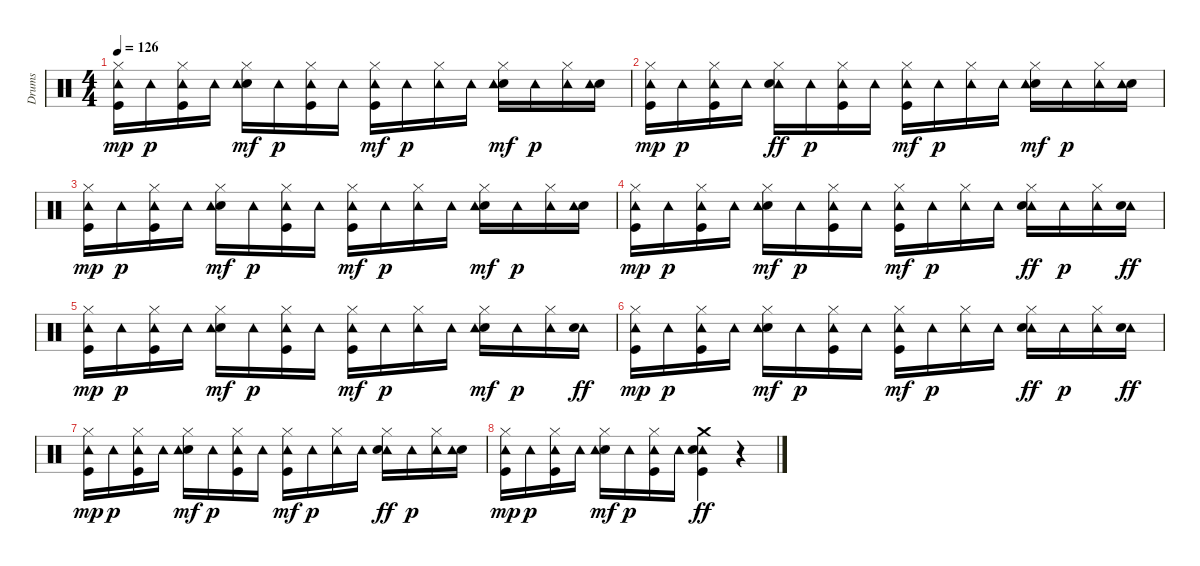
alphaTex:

\track ("Drums" "Drums") {instrument percussion}
\staff {score}
\articulation defaults
\ts (4 4)
\tempo 126
\clef neutral
\ks c
("Hi-Hat (closed)" "Tambourine (hit)" "Kick (hit)").16{dy mp} "Tambourine (hit)".16{dy p} ("Kick (hit)" "Tambourine (hit)" "Hi-Hat (closed)").16 "Tambourine (hit)".16 ("Electric Snare (hit)" "Hi-Hat (closed)" "Tambourine (hit)").16{dy mf} "Tambourine (hit)".16{dy p} ("Kick (hit)" "Hi-Hat (closed)" "Tambourine (hit)").16 "Tambourine (hit)".16 ("Tambourine (hit)" "Kick (hit)" "Hi-Hat (closed)").16{dy mf} "Tambourine (hit)".16{dy p} ("Tambourine (hit)" "Hi-Hat (closed)").16 "Tambourine (hit)".16 ("Electric Snare (hit)" "Tambourine (hit)" "Hi-Hat (closed)").16{dy mf} "Tambourine (hit)".16{dy p} ("Hi-Hat (closed)" "Tambourine (hit)").16 ("Electric Snare (hit)" "Tambourine (hit)").16 |
("Hi-Hat (closed)" "Tambourine (hit)" "Kick (hit)").16{dy mp} "Tambourine (hit)".16{dy p} ("Tambourine (hit)" "Hi-Hat (closed)" "Kick (hit)").16 "Tambourine (hit)".16 ("Tambourine (hit)" "Hi-Hat (closed)" "Electric Snare (hit)").16{dy ff} "Tambourine (hit)".16{dy p} ("Kick (hit)" "Hi-Hat (closed)" "Tambourine (hit)").16 "Tambourine (hit)".16 ("Tambourine (hit)" "Kick (hit)" "Hi-Hat (closed)").16{dy mf} "Tambourine (hit)".16{dy p} ("Tambourine (hit)" "Hi-Hat (closed)").16 "Tambourine (hit)".16 ("Electric Snare (hit)" "Hi-Hat (closed)" "Tambourine (hit)").16{dy mf} "Tambourine (hit)".16{dy p} ("Tambourine (hit)" "Hi-Hat (closed)").16 ("Electric Snare (hit)" "Tambourine (hit)").16 |
("Tambourine (hit)" "Hi-Hat (closed)" "Kick (hit)").16{dy mp} "Tambourine (hit)".16{dy p} ("Kick (hit)" "Tambourine (hit)" "Hi-Hat (closed)").16 "Tambourine (hit)".16 ("Electric Snare (hit)" "Tambourine (hit)" "Hi-Hat (closed)").16{dy mf} "Tambourine (hit)".16{dy p} ("Hi-Hat (closed)" "Kick (hit)" "Tambourine (hit)").16 "Tambourine (hit)".16 ("Tambourine (hit)" "Kick (hit)" "Hi-Hat (closed)").16{dy mf} "Tambourine (hit)".16{dy p} ("Hi-Hat (closed)" "Tambourine (hit)").16 "Tambourine (hit)".16 ("Hi-Hat (closed)" "Electric Snare (hit)" "Tambourine (hit)").16{dy mf} "Tambourine (hit)".16{dy p} ("Hi-Hat (closed)" "Tambourine (hit)").16 ("Electric Snare (hit)" "Tambourine (hit)").16 |
("Tambourine (hit)" "Hi-Hat (closed)" "Kick (hit)").16{dy mp} "Tambourine (hit)".16{dy p} ("Kick (hit)" "Hi-Hat (closed)" "Tambourine (hit)").16 "Tambourine (hit)".16 ("Hi-Hat (closed)" "Electric Snare (hit)" "Tambourine (hit)").16{dy mf} "Tambourine (hit)".16{dy p} ("Tambourine (hit)" "Hi-Hat (closed)" "Kick (hit)").16 "Tambourine (hit)".16 ("Tambourine (hit)" "Kick (hit)" "Hi-Hat (closed)").16{dy mf} "Tambourine (hit)".16{dy p} ("Hi-Hat (closed)" "Tambourine (hit)").16 "Tambourine (hit)".16 ("Hi-Hat (closed)" "Tambourine (hit)" "Electric Snare (hit)").16{dy ff} "Tambourine (hit)".16{dy p} ("Tambourine (hit)" "Hi-Hat (closed)").16 ("Tambourine (hit)" "Electric Snare (hit)").16{dy ff} |
("Kick (hit)" "Hi-Hat (closed)" "Tambourine (hit)").16{dy mp} "Tambourine (hit)".16{dy p} ("Hi-Hat (closed)" "Tambourine (hit)" "Kick (hit)").16 "Tambourine (hit)".16 ("Electric Snare (hit)" "Tambourine (hit)" "Hi-Hat (closed)").16{dy mf} "Tambourine (hit)".16{dy p} ("Hi-Hat (closed)" "Tambourine (hit)" "Kick (hit)").16 "Tambourine (hit)".16 ("Tambourine (hit)" "Kick (hit)" "Hi-Hat (closed)").16{dy mf} "Tambourine (hit)".16{dy p} ("Tambourine (hit)" "Hi-Hat (closed)").16 "Tambourine (hit)".16 ("Hi-Hat (closed)" "Electric Snare (hit)" "Tambourine (hit)").16{dy mf} "Tambourine (hit)".16{dy p} ("Tambourine (hit)" "Hi-Hat (closed)").16 ("Tambourine (hit)" "Electric Snare (hit)").16{dy ff} |
("Kick (hit)" "Hi-Hat (closed)" "Tambourine (hit)").16{dy mp} "Tambourine (hit)".16{dy p} ("Hi-Hat (closed)" "Tambourine (hit)" "Kick (hit)").16 "Tambourine (hit)".16 ("Hi-Hat (closed)" "Electric Snare (hit)" "Tambourine (hit)").16{dy mf} "Tambourine (hit)".16{dy p} ("Hi-Hat (closed)" "Kick (hit)" "Tambourine (hit)").16 "Tambourine (hit)".16 ("Tambourine (hit)" "Kick (hit)" "Hi-Hat (closed)").16{dy mf} "Tambourine (hit)".16{dy p} ("Tambourine (hit)" "Hi-Hat (closed)").16 "Tambourine (hit)".16 ("Tambourine (hit)" "Hi-Hat (closed)" "Electric Snare (hit)").16{dy ff} "Tambourine (hit)".16{dy p} ("Tambourine (hit)" "Hi-Hat (closed)").16 ("Tambourine (hit)" "Electric Snare (hit)").16{dy ff} |
("Kick (hit)" "Tambourine (hit)" "Hi-Hat (closed)").16{dy mp} "Tambourine (hit)".16{dy p} ("Kick (hit)" "Hi-Hat (closed)" "Tambourine (hit)").16 "Tambourine (hit)".16 ("Electric Snare (hit)" "Tambourine (hit)" "Hi-Hat (closed)").16{dy mf} "Tambourine (hit)".16{dy p} ("Tambourine (hit)" "Hi-Hat (closed)" "Kick (hit)").16 "Tambourine (hit)".16 ("Tambourine (hit)" "Kick (hit)" "Hi-Hat (closed)").16{dy mf} "Tambourine (hit)".16{dy p} ("Tambourine (hit)" "Hi-Hat (closed)").16 "Tambourine (hit)".16 ("Tambourine (hit)" "Hi-Hat (closed)" "Electric Snare (hit)").16{dy ff} "Tambourine (hit)".16{dy p} ("Tambourine (hit)" "Hi-Hat (closed)").16 ("Electric Snare (hit)" "Tambourine (hit)").16 |
("Kick (hit)" "Tambourine (hit)" "Hi-Hat (closed)").16{dy mp} "Tambourine (hit)".16{dy p} ("Hi-Hat (closed)" "Kick (hit)" "Tambourine (hit)").16 "Tambourine (hit)".16 ("Electric Snare (hit)" "Tambourine (hit)" "Hi-Hat (closed)").16{dy mf} "Tambourine (hit)".16{dy p} ("Hi-Hat (closed)" "Tambourine (hit)" "Kick (hit)").16 "Tambourine (hit)".16 ("Tambourine (hit)" "Kick (hit)" "Crash medium (hit)" "Electric Snare (hit)").4{dy ff} r.4
